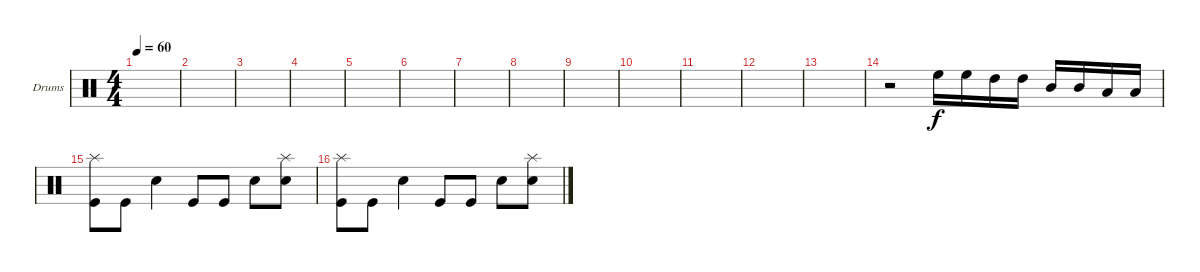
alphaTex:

\defaultSystemsLayout 4
\bracketExtendMode groupsimilarinstruments
\firstSystemTrackNameOrientation horizontal
\otherSystemsTrackNameOrientation horizontal
\track ("Kolya" "Drums") {instrument percussion}
\staff {score}
\articulation defaults
\ts (4 4)
\tempo 60
\clef neutral
\ks c
|
|
|
|
|
|
|
|
|
|
|
|
|
r.2 "High Floor Tom (hit)".16 "High Floor Tom (hit)".16 "High Tom (hit)".16 "High Tom (hit)".16 "Mid Tom (hit)".16 "Mid Tom (hit)".16 "Low Tom (hit)".16 "Low Tom (hit)".16 |
("Kick (hit)" "Splash (hit)").8 "Kick (hit)".8 "Snare (hit) 2".4 "Kick (hit)".8 "Kick (hit)".8 "Snare (hit) 2".8 ("Snare (hit) 2" "Splash (hit)").8 |
("Kick (hit)" "Splash (hit)").8 "Kick (hit)".8 "Snare (hit) 2".4 "Kick (hit)".8 "Kick (hit)".8 "Snare (hit) 2".8 ("Snare (hit) 2" "Splash (hit)").8
